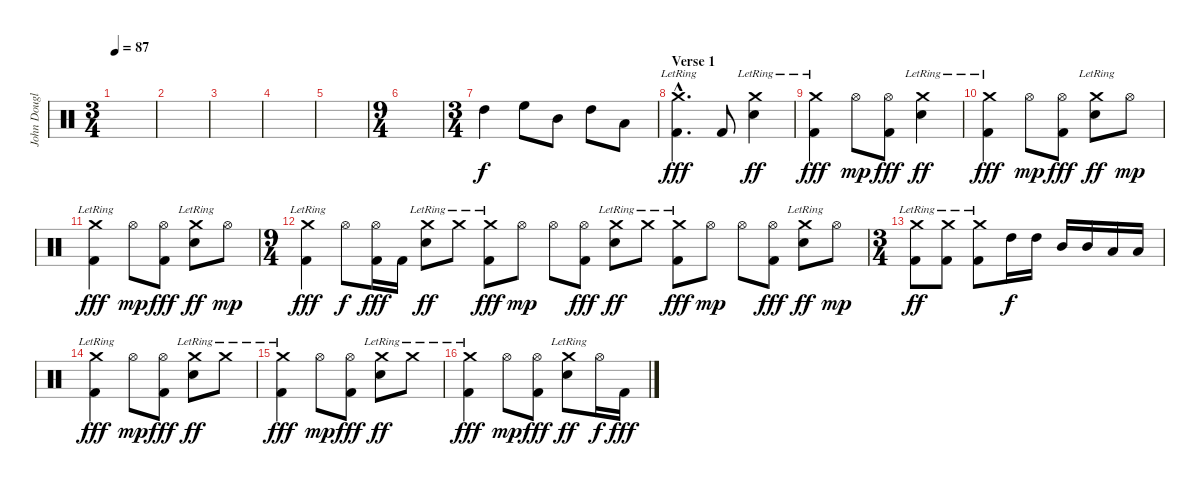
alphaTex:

\track ("John Douglas (Drums)" "John Dougl") {instrument percussion}
\staff {score}
\articulation defaults
\ts (3 4)
\tempo 87
\clef neutral
\ks c
|
|
|
|
|
\ts (9 4)
|
\ts (3 4)
"High Tom (hit)".4 "High Floor Tom (hit)".8 "Mid Tom (hit)".8 "High Tom (hit)".8 "Low Tom (hit)".8 |
\section ("" "Verse 1")
("Crash medium (hit)"{hac lr} "Kick (hit) 2"{hac}).4{d dy fff} "Kick (hit) 2".8 ("Crash medium (hit)"{lr} "Snare (hit) 2").4{dy ff} |
("Crash medium (hit)"{lr} "Kick (hit) 2").4{dy fff} "Hi-Hat (open)".8{dy mp} ("Hi-Hat (open)" "Kick (hit) 2").8{dy fff} ("Crash medium (hit)"{lr} "Snare (hit) 2").4{dy ff} |
("Crash medium (hit)"{lr} "Kick (hit) 2").4{dy fff} "Hi-Hat (open)".8{dy mp} ("Hi-Hat (open)" "Kick (hit) 2").8{dy fff} ("Crash medium (hit)"{lr} "Snare (hit) 2").8{dy ff} "Hi-Hat (open)".8{dy mp} |
("Crash medium (hit)"{lr} "Kick (hit) 2").4{dy fff} "Hi-Hat (open)".8{dy mp} ("Hi-Hat (open)" "Kick (hit) 2").8{dy fff} ("Crash medium (hit)"{lr} "Snare (hit) 2").8{dy ff} "Hi-Hat (open)".8{dy mp} |
\ts (9 4)
("Crash medium (hit)"{lr} "Kick (hit) 2").4{dy fff} "Hi-Hat (open)".8{dy f} ("Hi-Hat (open)" "Kick (hit) 2").16{dy fff} "Kick (hit) 2".16 ("Crash medium (hit)"{lr} "Snare (hit) 2").8{dy ff} "Crash medium (hit)"{lr}.8 ("Crash medium (hit)"{lr} "Kick (hit) 2").8{dy fff} "Hi-Hat (open)".8{dy mp} "Hi-Hat (open)".8 ("Hi-Hat (open)" "Kick (hit) 2").8{dy fff} ("Crash medium (hit)"{lr} "Snare (hit) 2").8{dy ff} "Crash medium (hit)"{lr}.8 ("Crash medium (hit)"{lr} "Kick (hit) 2").8{dy fff} "Hi-Hat (open)".8{dy mp} "Hi-Hat (open)".8 ("Hi-Hat (open)" "Kick (hit) 2").8{dy fff} ("Crash medium (hit)"{lr} "Snare (hit) 2").8{dy ff} "Hi-Hat (open)".8{dy mp} |
\ts (3 4)
("Crash medium (hit)"{lr} "Kick (hit) 2").8{dy ff} ("Crash medium (hit)"{lr} "Kick (hit) 2").8 ("Crash medium (hit)"{lr} "Kick (hit) 2").8 "High Tom (hit)".16{dy f} "High Tom (hit)".16 "Mid Tom (hit)".16 "Mid Tom (hit)".16 "Low Tom (hit)".16 "Low Tom (hit)".16 |
("Crash medium (hit)"{lr} "Kick (hit) 2").4{dy fff} "Hi-Hat (open)".8{dy mp} ("Hi-Hat (open)" "Kick (hit) 2").8{dy fff} ("Crash medium (hit)"{lr} "Snare (hit) 2").8{dy ff} "Crash medium (hit)"{lr}.8 |
("Crash medium (hit)"{lr} "Kick (hit) 2").4{dy fff} "Hi-Hat (open)".8{dy mp} ("Hi-Hat (open)" "Kick (hit) 2").8{dy fff} ("Crash medium (hit)"{lr} "Snare (hit) 2").8{dy ff} "Crash medium (hit)"{lr}.8 |
("Crash medium (hit)"{lr} "Kick (hit) 2").4{dy fff} "Hi-Hat (open)".8{dy mp} ("Hi-Hat (open)" "Kick (hit) 2").8{dy fff} ("Crash medium (hit)"{lr} "Snare (hit) 2").8{dy ff} "Hi-Hat (open)".16{dy f} "Kick (hit) 2".16{dy fff}
